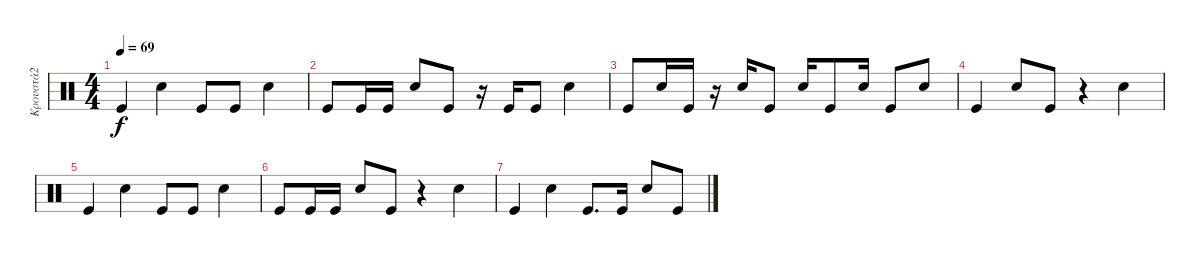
\track ("Κρουστά2" "Κρουστά2") {instrument percussion}
\staff {score}
\articulation defaults
\ts (4 4)
\tempo 69
\clef neutral
\ks c "Kick (hit)".4{dy f} "Snare (hit) 2".4 "Kick (hit)".8 "Kick (hit)".8 "Snare (hit) 2".4
|
"Kick (hit)".8 "Kick (hit)".16 "Kick (hit)".16 "Snare (hit) 2".8 "Kick (hit)".8 r.16 "Kick (hit)".16 "Kick (hit)".8 "Snare (hit) 2".4 |
"Kick (hit)".8 "Snare (hit) 2".16 "Kick (hit)".16 r.16 "Snare (hit) 2".16 "Kick (hit)".8 "Snare (hit) 2".16 "Kick (hit)".8 "Snare (hit) 2".16 "Kick (hit)".8 "Snare (hit) 2".8 |
"Kick (hit)".4 "Snare (hit) 2".8 "Kick (hit)".8 r.4 "Snare (hit) 2".4 |
"Kick (hit)".4 "Snare (hit) 2".4 "Kick (hit)".8 "Kick (hit)".8 "Snare (hit) 2".4 |
"Kick (hit)".8 "Kick (hit)".16 "Kick (hit)".16 "Snare (hit) 2".8 "Kick (hit)".8 r.4 "Snare (hit) 2".4 |
"Kick (hit)".4 "Snare (hit) 2".4 "Kick (hit)".8{d} "Kick (hit)".16 "Snare (hit) 2".8 "Kick (hit)".8
